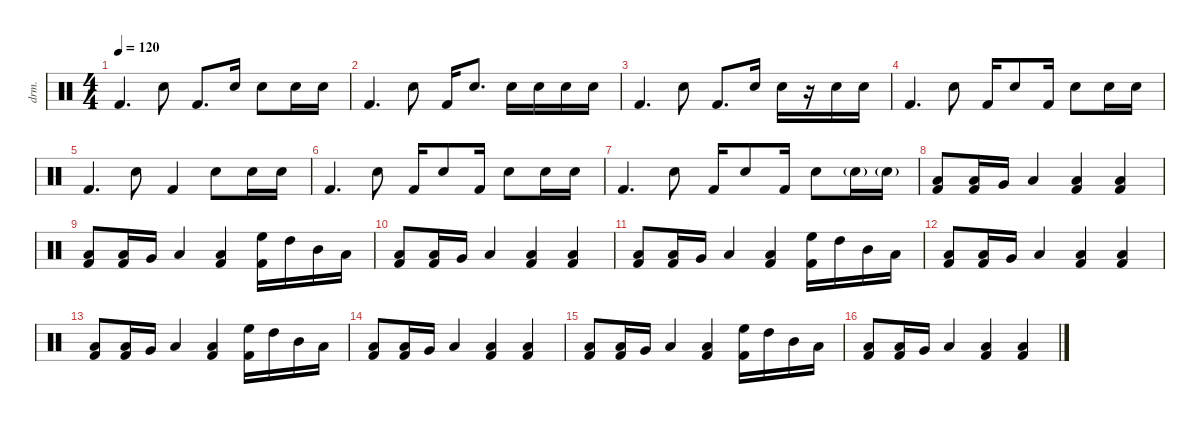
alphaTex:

\defaultSystemsLayout 4
\hideDynamics
\bracketExtendMode nobrackets
\otherSystemsTrackNameOrientation horizontal
\track ("Batterie" "drm.") {instrument percussion}
\staff {score}
\articulation defaults
\ts (4 4)
\tempo 120
\clef neutral
\ks c "Kick (hit) 2".4{d dy f} "Snare (hit) 2".8 "Kick (hit) 2".8{d} "Snare (hit) 2".16 "Snare (hit) 2".8 "Snare (hit) 2".16 "Snare (hit) 2".16
|
"Kick (hit) 2".4{d} "Snare (hit) 2".8 "Kick (hit) 2".16 "Snare (hit) 2".8{d} "Snare (hit) 2".16 "Snare (hit) 2".16 "Snare (hit) 2".16 "Snare (hit) 2".16 |
"Kick (hit) 2".4{d} "Snare (hit) 2".8 "Kick (hit) 2".8{d} "Snare (hit) 2".16 "Snare (hit) 2".16 r.16 "Snare (hit) 2".16 "Snare (hit) 2".16 |
"Kick (hit) 2".4{d} "Snare (hit) 2".8 "Kick (hit) 2".16 "Snare (hit) 2".8 "Kick (hit) 2".16 "Snare (hit) 2".8 "Snare (hit) 2".16 "Snare (hit) 2".16 |
"Kick (hit) 2".4{d} "Snare (hit) 2".8 "Kick (hit) 2".4 "Snare (hit) 2".8 "Snare (hit) 2".16 "Snare (hit) 2".16 |
"Kick (hit) 2".4{d} "Snare (hit) 2".8 "Kick (hit) 2".16 "Snare (hit) 2".8 "Kick (hit) 2".16 "Snare (hit) 2".8 "Snare (hit) 2".16 "Snare (hit) 2".16 |
"Kick (hit) 2".4{d} "Snare (hit) 2".8 "Kick (hit) 2".16 "Snare (hit) 2".8 "Kick (hit) 2".16 "Snare (hit) 2".8 "Snare (hit) 2"{g}.16 "Snare (hit) 2"{g}.16 |
("Low Floor Tom (hit)" "Kick (hit) 2").8 ("Low Floor Tom (hit)" "Kick (hit) 2").16 "Very Low Tom (hit)".16 "Low Floor Tom (hit)".4 ("Low Floor Tom (hit)" "Kick (hit) 2").4 ("Low Floor Tom (hit)" "Kick (hit) 2").4 |
("Low Floor Tom (hit)" "Kick (hit) 2").8 ("Low Floor Tom (hit)" "Kick (hit) 2").16 "Very Low Tom (hit)".16 "Low Floor Tom (hit)".4 ("Low Floor Tom (hit)" "Kick (hit) 2").4 ("High Floor Tom (hit)" "Kick (hit) 2").16 "High Tom (hit)".16 "Mid Tom (hit)".16 "Low Tom (hit)".16 |
("Low Floor Tom (hit)" "Kick (hit) 2").8 ("Low Floor Tom (hit)" "Kick (hit) 2").16 "Very Low Tom (hit)".16 "Low Floor Tom (hit)".4 ("Low Floor Tom (hit)" "Kick (hit) 2").4 ("Low Floor Tom (hit)" "Kick (hit) 2").4 |
("Low Floor Tom (hit)" "Kick (hit) 2").8 ("Low Floor Tom (hit)" "Kick (hit) 2").16 "Very Low Tom (hit)".16 "Low Floor Tom (hit)".4 ("Low Floor Tom (hit)" "Kick (hit) 2").4 ("High Floor Tom (hit)" "Kick (hit) 2").16 "High Tom (hit)".16 "Mid Tom (hit)".16 "Low Tom (hit)".16 |
("Low Floor Tom (hit)" "Kick (hit) 2").8 ("Low Floor Tom (hit)" "Kick (hit) 2").16 "Very Low Tom (hit)".16 "Low Floor Tom (hit)".4 ("Low Floor Tom (hit)" "Kick (hit) 2").4 ("Low Floor Tom (hit)" "Kick (hit) 2").4 |
("Low Floor Tom (hit)" "Kick (hit) 2").8 ("Low Floor Tom (hit)" "Kick (hit) 2").16 "Very Low Tom (hit)".16 "Low Floor Tom (hit)".4 ("Low Floor Tom (hit)" "Kick (hit) 2").4 ("High Floor Tom (hit)" "Kick (hit) 2").16 "High Tom (hit)".16 "Mid Tom (hit)".16 "Low Tom (hit)".16 |
("Low Floor Tom (hit)" "Kick (hit) 2").8 ("Low Floor Tom (hit)" "Kick (hit) 2").16 "Very Low Tom (hit)".16 "Low Floor Tom (hit)".4 ("Low Floor Tom (hit)" "Kick (hit) 2").4 ("Low Floor Tom (hit)" "Kick (hit) 2").4 |
("Low Floor Tom (hit)" "Kick (hit) 2").8 ("Low Floor Tom (hit)" "Kick (hit) 2").16 "Very Low Tom (hit)".16 "Low Floor Tom (hit)".4 ("Low Floor Tom (hit)" "Kick (hit) 2").4 ("High Floor Tom (hit)" "Kick (hit) 2").16 "High Tom (hit)".16 "Mid Tom (hit)".16 "Low Tom (hit)".16 |
("Low Floor Tom (hit)" "Kick (hit) 2").8 ("Low Floor Tom (hit)" "Kick (hit) 2").16 "Very Low Tom (hit)".16 "Low Floor Tom (hit)".4 ("Low Floor Tom (hit)" "Kick (hit) 2").4 ("Low Floor Tom (hit)" "Kick (hit) 2").4
